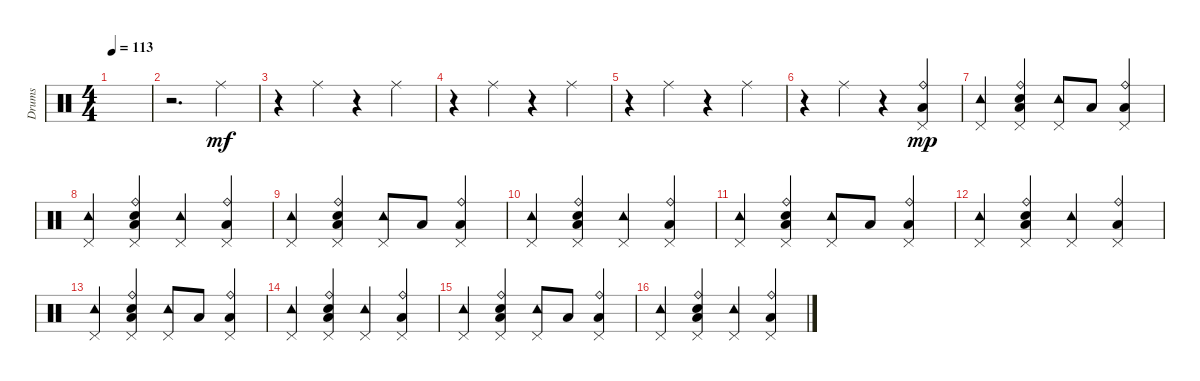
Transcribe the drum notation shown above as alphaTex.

\track ("Drums" "Drums") {instrument percussion}
\staff {score}
\articulation defaults
\ts (4 4)
\tempo 113
\clef neutral
\ks c
|
r.2{d} "Ride (middle)".4{dy mf} |
r.4 "Ride (middle)".4 r.4 "Ride (middle)".4 |
r.4 "Ride (middle)".4 r.4 "Ride (middle)".4 |
r.4 "Ride (middle)".4 r.4 "Ride (middle)".4 |
r.4 "Ride (middle)".4 r.4 ("Pedal Hi-Hat (hit)" "Low Floor Tom (hit)" "Ride (bell)").4{dy mp} |
("Pedal Hi-Hat (hit)" "Tambourine (hit)").4 ("Pedal Hi-Hat (hit)" "Snare (hit) 2" "Low Floor Tom (hit)" "Ride (bell)").4 ("Pedal Hi-Hat (hit)" "Tambourine (hit)").8 "Low Floor Tom (hit)".8 ("Pedal Hi-Hat (hit)" "Low Floor Tom (hit)" "Ride (bell)").4 |
("Pedal Hi-Hat (hit)" "Tambourine (hit)").4 ("Pedal Hi-Hat (hit)" "Snare (hit) 2" "Low Floor Tom (hit)" "Ride (bell)").4 ("Pedal Hi-Hat (hit)" "Tambourine (hit)").4 ("Pedal Hi-Hat (hit)" "Low Floor Tom (hit)" "Ride (bell)").4 |
("Pedal Hi-Hat (hit)" "Tambourine (hit)").4 ("Pedal Hi-Hat (hit)" "Snare (hit) 2" "Low Floor Tom (hit)" "Ride (bell)").4 ("Pedal Hi-Hat (hit)" "Tambourine (hit)").8 "Low Floor Tom (hit)".8 ("Pedal Hi-Hat (hit)" "Low Floor Tom (hit)" "Ride (bell)").4 |
("Pedal Hi-Hat (hit)" "Tambourine (hit)").4 ("Pedal Hi-Hat (hit)" "Snare (hit) 2" "Low Floor Tom (hit)" "Ride (bell)").4 ("Pedal Hi-Hat (hit)" "Tambourine (hit)").4 ("Pedal Hi-Hat (hit)" "Low Floor Tom (hit)" "Ride (bell)").4 |
("Pedal Hi-Hat (hit)" "Tambourine (hit)").4 ("Pedal Hi-Hat (hit)" "Snare (hit) 2" "Low Floor Tom (hit)" "Ride (bell)").4 ("Pedal Hi-Hat (hit)" "Tambourine (hit)").8 "Low Floor Tom (hit)".8 ("Pedal Hi-Hat (hit)" "Low Floor Tom (hit)" "Ride (bell)").4 |
("Pedal Hi-Hat (hit)" "Tambourine (hit)").4 ("Pedal Hi-Hat (hit)" "Snare (hit) 2" "Low Floor Tom (hit)" "Ride (bell)").4 ("Pedal Hi-Hat (hit)" "Tambourine (hit)").4 ("Pedal Hi-Hat (hit)" "Low Floor Tom (hit)" "Ride (bell)").4 |
("Pedal Hi-Hat (hit)" "Tambourine (hit)").4 ("Pedal Hi-Hat (hit)" "Snare (hit) 2" "Low Floor Tom (hit)" "Ride (bell)").4 ("Pedal Hi-Hat (hit)" "Tambourine (hit)").8 "Low Floor Tom (hit)".8 ("Pedal Hi-Hat (hit)" "Low Floor Tom (hit)" "Ride (bell)").4 |
("Pedal Hi-Hat (hit)" "Tambourine (hit)").4 ("Pedal Hi-Hat (hit)" "Snare (hit) 2" "Low Floor Tom (hit)" "Ride (bell)").4 ("Pedal Hi-Hat (hit)" "Tambourine (hit)").4 ("Pedal Hi-Hat (hit)" "Low Floor Tom (hit)" "Ride (bell)").4 |
("Pedal Hi-Hat (hit)" "Tambourine (hit)").4 ("Pedal Hi-Hat (hit)" "Snare (hit) 2" "Low Floor Tom (hit)" "Ride (bell)").4 ("Pedal Hi-Hat (hit)" "Tambourine (hit)").8 "Low Floor Tom (hit)".8 ("Pedal Hi-Hat (hit)" "Low Floor Tom (hit)" "Ride (bell)").4 |
("Pedal Hi-Hat (hit)" "Tambourine (hit)").4 ("Pedal Hi-Hat (hit)" "Snare (hit) 2" "Low Floor Tom (hit)" "Ride (bell)").4 ("Pedal Hi-Hat (hit)" "Tambourine (hit)").4 ("Pedal Hi-Hat (hit)" "Low Floor Tom (hit)" "Ride (bell)").4
